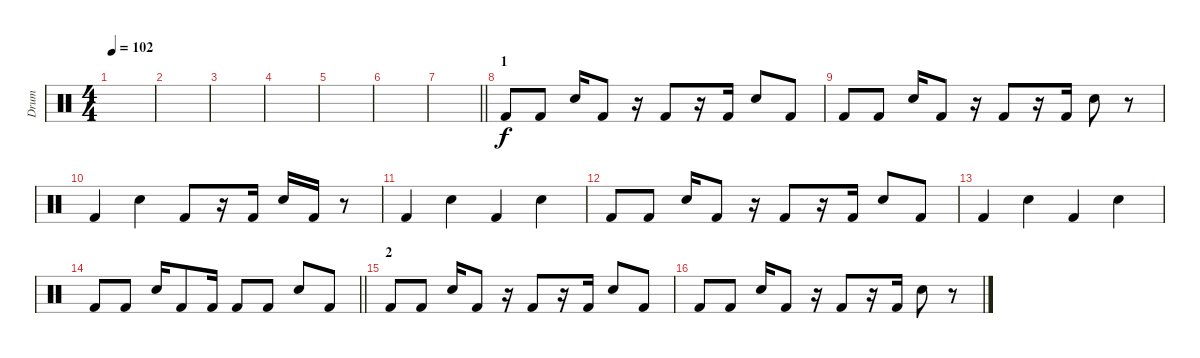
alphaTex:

\track ("Drum" "Drum") {instrument percussion}
\staff {score}
\articulation defaults
\ts (4 4)
\tempo 102
\clef neutral
\ks c
|
|
|
|
|
|
\barLineRight lightlight
|
\section ("" "1")
"Kick (hit) 2".8 "Kick (hit) 2".8 "Electric Snare (hit)".16 "Kick (hit) 2".8 r.16 "Kick (hit) 2".8 r.16 "Kick (hit) 2".16 "Electric Snare (hit)".8 "Kick (hit) 2".8 |
"Kick (hit) 2".8 "Kick (hit) 2".8 "Electric Snare (hit)".16 "Kick (hit) 2".8 r.16 "Kick (hit) 2".8 r.16 "Kick (hit) 2".16 "Electric Snare (hit)".8 r.8 |
"Kick (hit) 2".4 "Electric Snare (hit)".4 "Kick (hit) 2".8 r.16 "Kick (hit) 2".16 "Electric Snare (hit)".16 "Kick (hit) 2".16 r.8 |
"Kick (hit) 2".4 "Electric Snare (hit)".4 "Kick (hit) 2".4 "Electric Snare (hit)".4 |
"Kick (hit) 2".8 "Kick (hit) 2".8 "Electric Snare (hit)".16 "Kick (hit) 2".8 r.16 "Kick (hit) 2".8 r.16 "Kick (hit) 2".16 "Electric Snare (hit)".8 "Kick (hit) 2".8 |
"Kick (hit) 2".4 "Electric Snare (hit)".4 "Kick (hit) 2".4 "Electric Snare (hit)".4 |
\barLineRight lightlight "Kick (hit) 2".8 "Kick (hit) 2".8 "Electric Snare (hit)".16 "Kick (hit) 2".8 "Kick (hit) 2".16 "Kick (hit) 2".8 "Kick (hit) 2".8 "Electric Snare (hit)".8 "Kick (hit) 2".8
|
\section ("" "2")
"Kick (hit) 2".8 "Kick (hit) 2".8 "Electric Snare (hit)".16 "Kick (hit) 2".8 r.16 "Kick (hit) 2".8 r.16 "Kick (hit) 2".16 "Electric Snare (hit)".8 "Kick (hit) 2".8 |
"Kick (hit) 2".8 "Kick (hit) 2".8 "Electric Snare (hit)".16 "Kick (hit) 2".8 r.16 "Kick (hit) 2".8 r.16 "Kick (hit) 2".16 "Electric Snare (hit)".8 r.8
